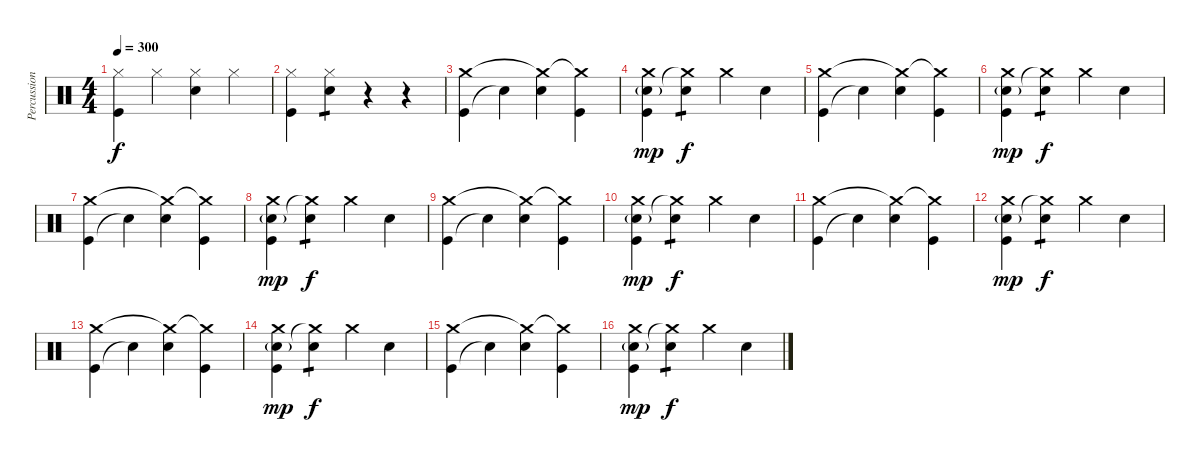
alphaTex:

\track ("Percussion" "Percussion") {instrument percussion}
\staff {score}
\articulation defaults
\ts (4 4)
\tempo 300
\clef neutral
\ks c
("Kick (hit)" "Hi-Hat (closed)").4{dy f} "Hi-Hat (closed)".4 ("Electric Snare (hit)" "Hi-Hat (closed)").4 "Hi-Hat (closed)".4 |
("Kick (hit)" "Hi-Hat (closed)").4 ("Electric Snare (hit)" "Hi-Hat (closed)").4{tp 1} r.4 r.4 |
("Kick (hit)" "Crash medium (hit)").4 "Snare (hit)"{t}.4 ("Electric Snare (hit)" "Crash medium (hit)"{t}).4 ("Kick (hit)" "Crash medium (hit)"{t}).4 |
("Kick (hit)" "Electric Snare (hit)"{g} "Crash medium (hit)").4{dy mp} ("Electric Snare (hit)" "Crash medium (hit)"{t}).4{tp 1 dy f} "Crash medium (hit)".4 "Electric Snare (hit)".4 |
("Kick (hit)" "Crash medium (hit)").4 "Snare (hit)"{t}.4 ("Electric Snare (hit)" "Crash medium (hit)"{t}).4 ("Kick (hit)" "Crash medium (hit)"{t}).4 |
("Kick (hit)" "Electric Snare (hit)"{g} "Crash medium (hit)").4{dy mp} ("Electric Snare (hit)" "Crash medium (hit)"{t}).4{tp 1 dy f} "Crash medium (hit)".4 "Electric Snare (hit)".4 |
("Kick (hit)" "Crash medium (hit)").4 "Snare (hit)"{t}.4 ("Electric Snare (hit)" "Crash medium (hit)"{t}).4 ("Kick (hit)" "Crash medium (hit)"{t}).4 |
("Kick (hit)" "Electric Snare (hit)"{g} "Crash medium (hit)").4{dy mp} ("Electric Snare (hit)" "Crash medium (hit)"{t}).4{tp 1 dy f} "Crash medium (hit)".4 "Electric Snare (hit)".4 |
("Kick (hit)" "Crash medium (hit)").4 "Snare (hit)"{t}.4 ("Electric Snare (hit)" "Crash medium (hit)"{t}).4 ("Kick (hit)" "Crash medium (hit)"{t}).4 |
("Kick (hit)" "Electric Snare (hit)"{g} "Crash medium (hit)").4{dy mp} ("Electric Snare (hit)" "Crash medium (hit)"{t}).4{tp 1 dy f} "Crash medium (hit)".4 "Electric Snare (hit)".4 |
("Kick (hit)" "Crash medium (hit)").4 "Snare (hit)"{t}.4 ("Electric Snare (hit)" "Crash medium (hit)"{t}).4 ("Kick (hit)" "Crash medium (hit)"{t}).4 |
("Kick (hit)" "Electric Snare (hit)"{g} "Crash medium (hit)").4{dy mp} ("Electric Snare (hit)" "Crash medium (hit)"{t}).4{tp 1 dy f} "Crash medium (hit)".4 "Electric Snare (hit)".4 |
("Kick (hit)" "Crash medium (hit)").4 "Snare (hit)"{t}.4 ("Electric Snare (hit)" "Crash medium (hit)"{t}).4 ("Kick (hit)" "Crash medium (hit)"{t}).4 |
("Kick (hit)" "Electric Snare (hit)"{g} "Crash medium (hit)").4{dy mp} ("Electric Snare (hit)" "Crash medium (hit)"{t}).4{tp 1 dy f} "Crash medium (hit)".4 "Electric Snare (hit)".4 |
("Kick (hit)" "Crash medium (hit)").4 "Snare (hit)"{t}.4 ("Electric Snare (hit)" "Crash medium (hit)"{t}).4 ("Kick (hit)" "Crash medium (hit)"{t}).4 |
("Kick (hit)" "Electric Snare (hit)"{g} "Crash medium (hit)").4{dy mp} ("Electric Snare (hit)" "Crash medium (hit)"{t}).4{tp 1 dy f} "Crash medium (hit)".4 "Electric Snare (hit)".4
